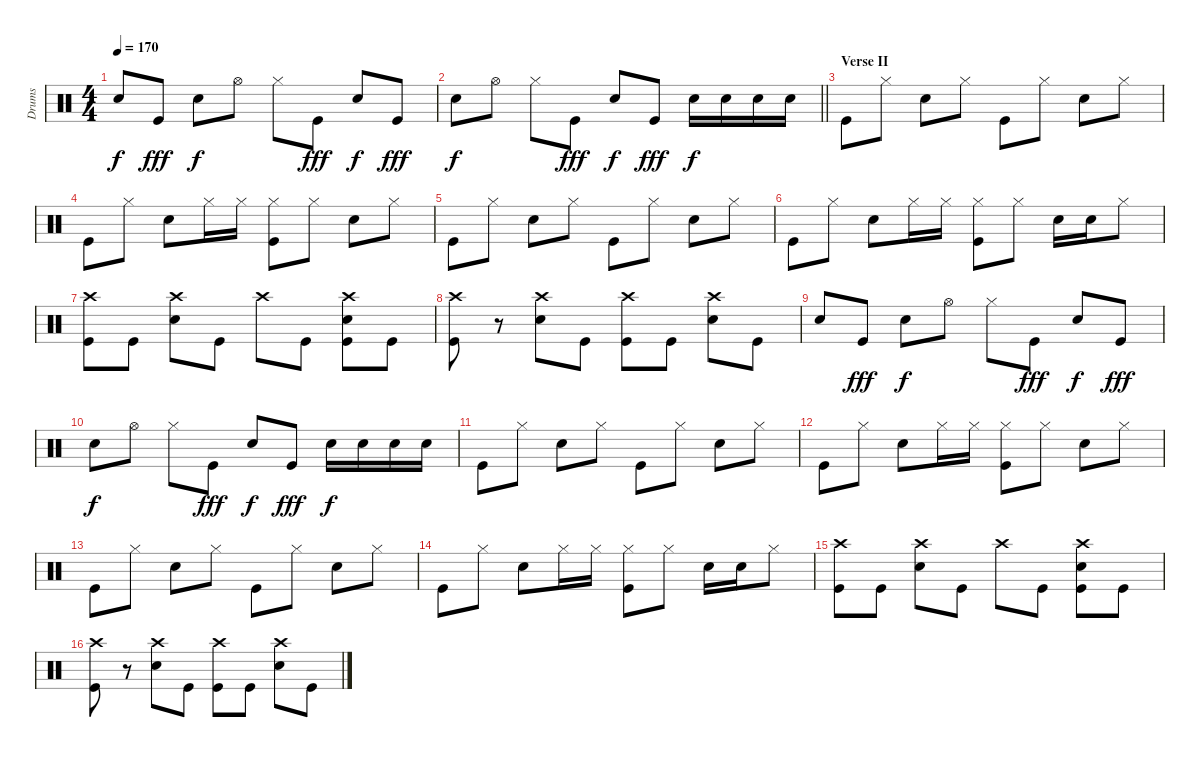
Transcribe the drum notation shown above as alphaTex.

\track ("Drums" "Drums") {instrument percussion}
\staff {score}
\articulation defaults
\ts (4 4)
\tempo 170
\clef neutral
\ks c "Electric Snare (hit)".8{dy f} "Kick (hit)".8{dy fff} "Electric Snare (hit)".8{dy f} "Hi-Hat (open)".8 "Hi-Hat (closed)".8 "Kick (hit)".8{dy fff} "Electric Snare (hit)".8{dy f} "Kick (hit)".8{dy fff}
|
\barLineRight lightlight "Electric Snare (hit)".8{dy f} "Hi-Hat (open)".8 "Hi-Hat (closed)".8 "Kick (hit)".8{dy fff} "Electric Snare (hit)".8{dy f} "Kick (hit)".8{dy fff} "Electric Snare (hit)".16{dy f} "Electric Snare (hit)".16 "Electric Snare (hit)".16 "Electric Snare (hit)".16
|
\section ("" "Verse II")
"Kick (hit)".8 "Hi-Hat (closed)".8 "Electric Snare (hit)".8 "Hi-Hat (closed)".8 "Kick (hit)".8 "Hi-Hat (closed)".8 "Electric Snare (hit)".8 "Hi-Hat (closed)".8 |
"Kick (hit)".8 "Hi-Hat (closed)".8 "Electric Snare (hit)".8 "Hi-Hat (closed)".16 "Hi-Hat (closed)".16 ("Hi-Hat (closed)" "Kick (hit)").8 "Hi-Hat (closed)".8 "Electric Snare (hit)".8 "Hi-Hat (closed)".8 |
"Kick (hit)".8 "Hi-Hat (closed)".8 "Electric Snare (hit)".8 "Hi-Hat (closed)".8 "Kick (hit)".8 "Hi-Hat (closed)".8 "Electric Snare (hit)".8 "Hi-Hat (closed)".8 |
"Kick (hit)".8 "Hi-Hat (closed)".8 "Electric Snare (hit)".8 "Hi-Hat (closed)".16 "Hi-Hat (closed)".16 ("Hi-Hat (closed)" "Kick (hit)").8 "Hi-Hat (closed)".8 "Electric Snare (hit)".16 "Electric Snare (hit)".16 "Hi-Hat (closed)".8 |
("Crash high (hit)" "Kick (hit)").8 "Kick (hit)".8 ("Crash high (hit)" "Electric Snare (hit)").8 "Kick (hit)".8 "Crash high (hit)".8 "Kick (hit)".8 ("Crash high (hit)" "Electric Snare (hit)" "Kick (hit)").8 "Kick (hit)".8 |
("Crash high (hit)" "Kick (hit)").8 r.8 ("Crash high (hit)" "Electric Snare (hit)").8 "Kick (hit)".8 ("Crash high (hit)" "Kick (hit)").8 "Kick (hit)".8 ("Crash high (hit)" "Electric Snare (hit)").8 "Kick (hit)".8 |
"Electric Snare (hit)".8 "Kick (hit)".8{dy fff} "Electric Snare (hit)".8{dy f} "Hi-Hat (open)".8 "Hi-Hat (closed)".8 "Kick (hit)".8{dy fff} "Electric Snare (hit)".8{dy f} "Kick (hit)".8{dy fff} |
"Electric Snare (hit)".8{dy f} "Hi-Hat (open)".8 "Hi-Hat (closed)".8 "Kick (hit)".8{dy fff} "Electric Snare (hit)".8{dy f} "Kick (hit)".8{dy fff} "Electric Snare (hit)".16{dy f} "Electric Snare (hit)".16 "Electric Snare (hit)".16 "Electric Snare (hit)".16 |
"Kick (hit)".8 "Hi-Hat (closed)".8 "Electric Snare (hit)".8 "Hi-Hat (closed)".8 "Kick (hit)".8 "Hi-Hat (closed)".8 "Electric Snare (hit)".8 "Hi-Hat (closed)".8 |
"Kick (hit)".8 "Hi-Hat (closed)".8 "Electric Snare (hit)".8 "Hi-Hat (closed)".16 "Hi-Hat (closed)".16 ("Hi-Hat (closed)" "Kick (hit)").8 "Hi-Hat (closed)".8 "Electric Snare (hit)".8 "Hi-Hat (closed)".8 |
"Kick (hit)".8 "Hi-Hat (closed)".8 "Electric Snare (hit)".8 "Hi-Hat (closed)".8 "Kick (hit)".8 "Hi-Hat (closed)".8 "Electric Snare (hit)".8 "Hi-Hat (closed)".8 |
"Kick (hit)".8 "Hi-Hat (closed)".8 "Electric Snare (hit)".8 "Hi-Hat (closed)".16 "Hi-Hat (closed)".16 ("Hi-Hat (closed)" "Kick (hit)").8 "Hi-Hat (closed)".8 "Electric Snare (hit)".16 "Electric Snare (hit)".16 "Hi-Hat (closed)".8 |
("Crash high (hit)" "Kick (hit)").8 "Kick (hit)".8 ("Crash high (hit)" "Electric Snare (hit)").8 "Kick (hit)".8 "Crash high (hit)".8 "Kick (hit)".8 ("Crash high (hit)" "Electric Snare (hit)" "Kick (hit)").8 "Kick (hit)".8 |
("Crash high (hit)" "Kick (hit)").8 r.8 ("Crash high (hit)" "Electric Snare (hit)").8 "Kick (hit)".8 ("Crash high (hit)" "Kick (hit)").8 "Kick (hit)".8 ("Crash high (hit)" "Electric Snare (hit)").8 "Kick (hit)".8
